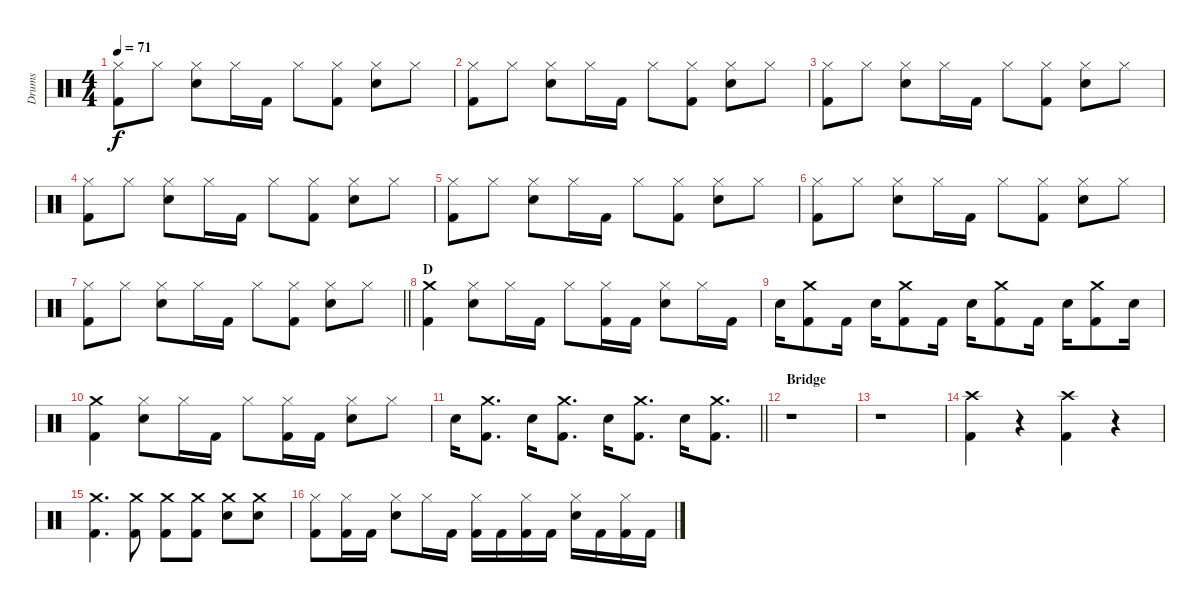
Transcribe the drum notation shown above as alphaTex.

\track ("Drums" "Drums") {instrument percussion}
\staff {score}
\articulation defaults
\ts (4 4)
\tempo 71
\clef neutral
\ks c
("Hi-Hat (closed)" "Kick (hit) 2").8{dy f} "Hi-Hat (closed)".8 ("Hi-Hat (closed)" "Snare (hit) 2").8 "Hi-Hat (closed)".16 "Kick (hit) 2".16 "Hi-Hat (closed)".8 ("Kick (hit) 2" "Hi-Hat (closed)").8 ("Hi-Hat (closed)" "Snare (hit) 2").8 "Hi-Hat (closed)".8 |
("Hi-Hat (closed)" "Kick (hit) 2").8 "Hi-Hat (closed)".8 ("Hi-Hat (closed)" "Snare (hit) 2").8 "Hi-Hat (closed)".16 "Kick (hit) 2".16 "Hi-Hat (closed)".8 ("Kick (hit) 2" "Hi-Hat (closed)").8 ("Hi-Hat (closed)" "Snare (hit) 2").8 "Hi-Hat (closed)".8 |
("Hi-Hat (closed)" "Kick (hit) 2").8 "Hi-Hat (closed)".8 ("Hi-Hat (closed)" "Snare (hit) 2").8 "Hi-Hat (closed)".16 "Kick (hit) 2".16 "Hi-Hat (closed)".8 ("Kick (hit) 2" "Hi-Hat (closed)").8 ("Hi-Hat (closed)" "Snare (hit) 2").8 "Hi-Hat (closed)".8 |
("Hi-Hat (closed)" "Kick (hit) 2").8 "Hi-Hat (closed)".8 ("Hi-Hat (closed)" "Snare (hit) 2").8 "Hi-Hat (closed)".16 "Kick (hit) 2".16 "Hi-Hat (closed)".8 ("Kick (hit) 2" "Hi-Hat (closed)").8 ("Hi-Hat (closed)" "Snare (hit) 2").8 "Hi-Hat (closed)".8 |
("Hi-Hat (closed)" "Kick (hit) 2").8 "Hi-Hat (closed)".8 ("Hi-Hat (closed)" "Snare (hit) 2").8 "Hi-Hat (closed)".16 "Kick (hit) 2".16 "Hi-Hat (closed)".8 ("Kick (hit) 2" "Hi-Hat (closed)").8 ("Hi-Hat (closed)" "Snare (hit) 2").8 "Hi-Hat (closed)".8 |
("Hi-Hat (closed)" "Kick (hit) 2").8 "Hi-Hat (closed)".8 ("Hi-Hat (closed)" "Snare (hit) 2").8 "Hi-Hat (closed)".16 "Kick (hit) 2".16 "Hi-Hat (closed)".8 ("Kick (hit) 2" "Hi-Hat (closed)").8 ("Hi-Hat (closed)" "Snare (hit) 2").8 "Hi-Hat (closed)".8 |
\barLineRight lightlight
("Hi-Hat (closed)" "Kick (hit) 2").8 "Hi-Hat (closed)".8 ("Hi-Hat (closed)" "Snare (hit) 2").8 "Hi-Hat (closed)".16 "Kick (hit) 2".16 "Hi-Hat (closed)".8 ("Kick (hit) 2" "Hi-Hat (closed)").8 ("Hi-Hat (closed)" "Snare (hit) 2").8 "Hi-Hat (closed)".8 |
\section ("" "D")
("Crash medium (hit)" "Kick (hit) 2").4 ("Snare (hit) 2" "Hi-Hat (closed)").8 "Hi-Hat (closed)".16 "Kick (hit) 2".16 "Hi-Hat (closed)".8 ("Hi-Hat (closed)" "Kick (hit) 2").16 "Kick (hit) 2".16 ("Hi-Hat (closed)" "Snare (hit) 2").8 "Hi-Hat (closed)".16 "Kick (hit) 2".16 |
"Snare (hit) 2".16 ("Crash medium (hit)" "Kick (hit) 2").8 "Kick (hit) 2".16 "Snare (hit) 2".16 ("Crash medium (hit)" "Kick (hit) 2").8 "Kick (hit) 2".16 "Snare (hit) 2".16 ("Crash medium (hit)" "Kick (hit) 2").8 "Kick (hit) 2".16 "Snare (hit) 2".16 ("Crash medium (hit)" "Kick (hit) 2").8 "Snare (hit) 2".16 |
("Kick (hit) 2" "Crash medium (hit)").4 ("Hi-Hat (closed)" "Snare (hit) 2").8 "Hi-Hat (closed)".16 "Kick (hit) 2".16 "Hi-Hat (closed)".8 ("Kick (hit) 2" "Hi-Hat (closed)").16 "Kick (hit) 2".16 ("Hi-Hat (closed)" "Snare (hit) 2").8 "Hi-Hat (closed)".8 |
\barLineRight lightlight "Snare (hit) 2".16
("Crash medium (hit)" "Kick (hit) 2").8{d} "Snare (hit) 2".16 ("Crash medium (hit)" "Kick (hit) 2").8{d} "Snare (hit) 2".16 ("Crash medium (hit)" "Kick (hit) 2").8{d} "Snare (hit) 2".16 ("Crash medium (hit)" "Kick (hit) 2").8{d} |
\section ("" "Bridge")
r.1 |
r.1 |
("Crash high (hit)" "Kick (hit) 2").4 r.4 ("Crash high (hit)" "Kick (hit) 2").4 r.4 |
("Crash medium (hit)" "Kick (hit) 2").4{d} ("Kick (hit) 2" "Crash medium (hit)").8 ("Kick (hit) 2" "Crash medium (hit)").8 ("Kick (hit) 2" "Crash medium (hit)").8 ("Snare (hit) 2" "Crash medium (hit)").8 ("Snare (hit) 2" "Crash medium (hit)").8 |
("Hi-Hat (closed)" "Kick (hit) 2").8 ("Hi-Hat (closed)" "Kick (hit) 2").16 "Kick (hit) 2".16 ("Hi-Hat (closed)" "Snare (hit) 2").8 "Hi-Hat (closed)".16 "Kick (hit) 2".16 ("Hi-Hat (closed)" "Kick (hit) 2").16 "Kick (hit) 2".16 ("Hi-Hat (closed)" "Kick (hit) 2").16 "Kick (hit) 2".16 ("Hi-Hat (closed)" "Snare (hit) 2").16 "Kick (hit) 2".16 ("Hi-Hat (closed)" "Kick (hit) 2").16 "Kick (hit) 2".16
